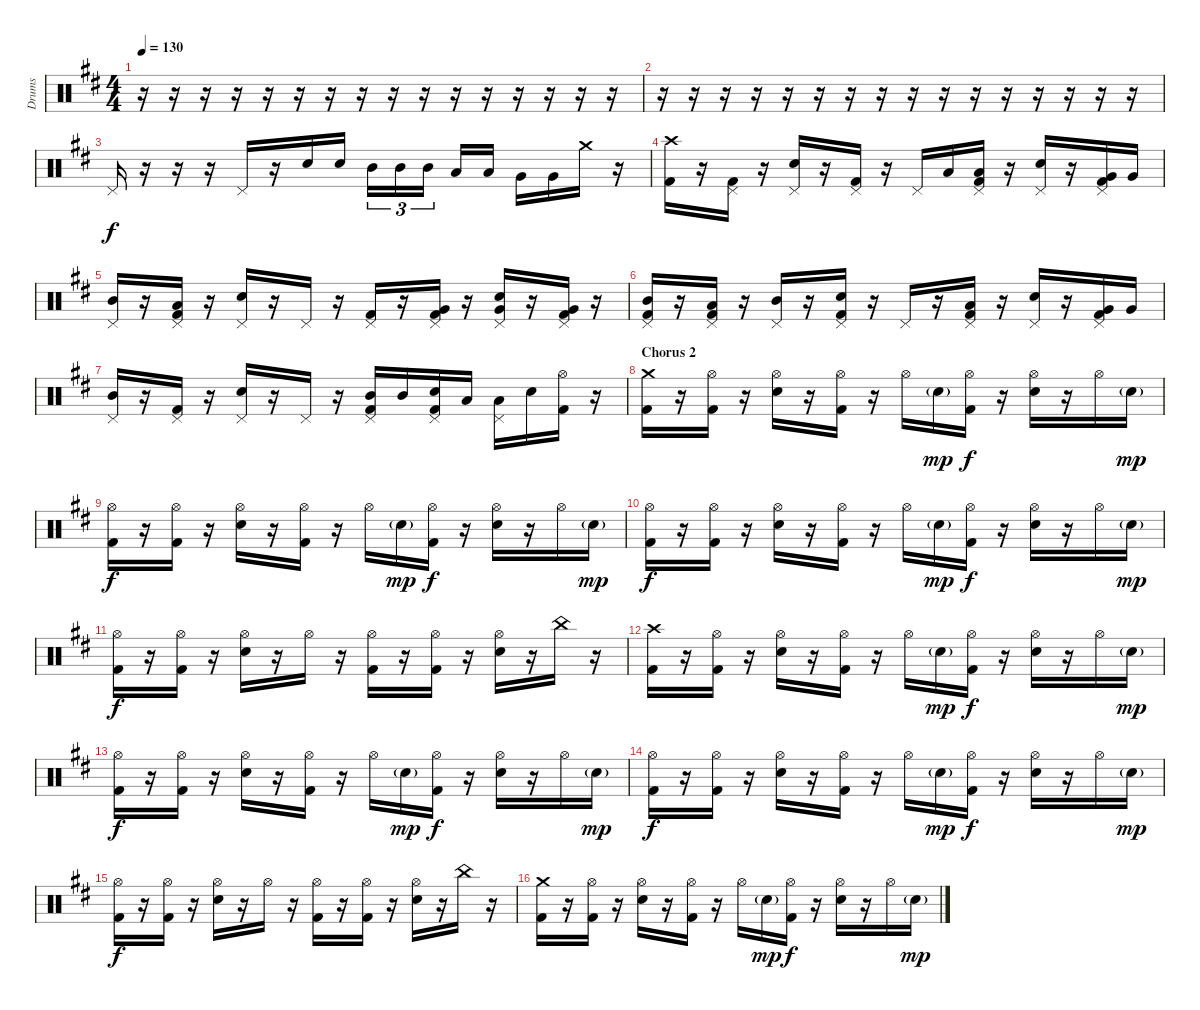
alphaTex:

\track ("Drums" "Drums") {instrument percussion}
\staff {score}
\articulation defaults
\ts (4 4)
\tempo 130
\clef neutral
\ks d
r.16{dy f} r.16 r.16 r.16 r.16 r.16 r.16 r.16 r.16 r.16 r.16 r.16 r.16 r.16 r.16 r.16 |
r.16 r.16 r.16 r.16 r.16 r.16 r.16 r.16 r.16 r.16 r.16 r.16 r.16 r.16 r.16 r.16 |
"Pedal Hi-Hat (hit)".16 r.16 r.16 r.16 "Pedal Hi-Hat (hit)".16 r.16 "Electric Snare (hit)".16 "Electric Snare (hit)".16 "Mid Tom (hit)".16{tu (3 2)} "Mid Tom (hit)".16{tu (3 2)} "Mid Tom (hit)".16{tu (3 2)} "Low Tom (hit)".16 "Low Tom (hit)".16 "Very Low Tom (hit)".16 "Very Low Tom (hit)".16 "Crash medium (hit)".16 r.16 |
("Crash high (hit)" "Kick (hit) 2").16 r.16 ("Pedal Hi-Hat (hit)" "Kick (hit) 2").16 r.16 ("Pedal Hi-Hat (hit)" "Electric Snare (hit)").16 r.16 ("Pedal Hi-Hat (hit)" "Kick (hit) 2").16 r.16 "Pedal Hi-Hat (hit)".16 "Low Tom (hit)".16 ("Pedal Hi-Hat (hit)" "Low Tom (hit)" "Kick (hit) 2").16 r.16 ("Pedal Hi-Hat (hit)" "Electric Snare (hit)").16 r.16 ("Pedal Hi-Hat (hit)" "Very Low Tom (hit)" "Kick (hit) 2").16 "Very Low Tom (hit)".16 |
("Mid Tom (hit)" "Pedal Hi-Hat (hit)").16 r.16 ("Pedal Hi-Hat (hit)" "Low Tom (hit)" "Kick (hit) 2").16 r.16 ("Pedal Hi-Hat (hit)" "Electric Snare (hit)").16 r.16 "Pedal Hi-Hat (hit)".16 r.16 ("Pedal Hi-Hat (hit)" "Kick (hit) 2").16 r.16 ("Pedal Hi-Hat (hit)" "Very Low Tom (hit)" "Kick (hit) 2").16 r.16 ("Pedal Hi-Hat (hit)" "Electric Snare (hit)" "Very Low Tom (hit)").16 r.16 ("Pedal Hi-Hat (hit)" "Very Low Tom (hit)" "Kick (hit) 2").16 r.16 |
("Mid Tom (hit)" "Pedal Hi-Hat (hit)" "Kick (hit) 2").16 r.16 ("Pedal Hi-Hat (hit)" "Low Tom (hit)" "Kick (hit) 2").16 r.16 ("Mid Tom (hit)" "Pedal Hi-Hat (hit)").16 r.16 ("Pedal Hi-Hat (hit)" "Electric Snare (hit)" "Kick (hit) 2").16 r.16 "Pedal Hi-Hat (hit)".16 r.16 ("Pedal Hi-Hat (hit)" "Low Tom (hit)" "Kick (hit) 2").16 r.16 ("Pedal Hi-Hat (hit)" "Electric Snare (hit)").16 r.16 ("Pedal Hi-Hat (hit)" "Very Low Tom (hit)" "Kick (hit) 2").16 "Very Low Tom (hit)".16 |
("Mid Tom (hit)" "Pedal Hi-Hat (hit)").16 r.16 ("Pedal Hi-Hat (hit)" "Kick (hit) 2").16 r.16 ("Pedal Hi-Hat (hit)" "Electric Snare (hit)").16 r.16 "Pedal Hi-Hat (hit)".16 r.16 ("Mid Tom (hit)" "Pedal Hi-Hat (hit)" "Kick (hit) 2").16 "Mid Tom (hit)".16 ("Pedal Hi-Hat (hit)" "Electric Snare (hit)" "Kick (hit) 2").16 "Low Tom (hit)".16 ("Pedal Hi-Hat (hit)" "Low Tom (hit)").16 "Electric Snare (hit)".16 ("Hi-Hat (open)" "Kick (hit) 2").16 r.16 |
\section ("" "Chorus 2")
("Crash medium (hit)" "Kick (hit) 2").16 r.16 ("Hi-Hat (open)" "Kick (hit) 2").16 r.16 ("Hi-Hat (open)" "Electric Snare (hit)").16 r.16 ("Hi-Hat (open)" "Kick (hit) 2").16 r.16 "Hi-Hat (open)".16 "Electric Snare (hit)"{g}.16{dy mp} ("Hi-Hat (open)" "Kick (hit) 2").16{dy f} r.16 ("Hi-Hat (open)" "Electric Snare (hit)").16 r.16 "Hi-Hat (open)".16 "Electric Snare (hit)"{g}.16{dy mp} |
("Hi-Hat (open)" "Kick (hit) 2").16{dy f} r.16 ("Hi-Hat (open)" "Kick (hit) 2").16 r.16 ("Hi-Hat (open)" "Electric Snare (hit)").16 r.16 ("Hi-Hat (open)" "Kick (hit) 2").16 r.16 "Hi-Hat (open)".16 "Electric Snare (hit)"{g}.16{dy mp} ("Hi-Hat (open)" "Kick (hit) 2").16{dy f} r.16 ("Hi-Hat (open)" "Electric Snare (hit)").16 r.16 "Hi-Hat (open)".16 "Electric Snare (hit)"{g}.16{dy mp} |
("Hi-Hat (open)" "Kick (hit) 2").16{dy f} r.16 ("Hi-Hat (open)" "Kick (hit) 2").16 r.16 ("Hi-Hat (open)" "Electric Snare (hit)").16 r.16 ("Hi-Hat (open)" "Kick (hit) 2").16 r.16 "Hi-Hat (open)".16 "Electric Snare (hit)"{g}.16{dy mp} ("Hi-Hat (open)" "Kick (hit) 2").16{dy f} r.16 ("Hi-Hat (open)" "Electric Snare (hit)").16 r.16 "Hi-Hat (open)".16 "Electric Snare (hit)"{g}.16{dy mp} |
("Hi-Hat (open)" "Kick (hit) 2").16{dy f} r.16 ("Hi-Hat (open)" "Kick (hit) 2").16 r.16 ("Hi-Hat (open)" "Electric Snare (hit)").16 r.16 "Hi-Hat (open)".16 r.16 ("Hi-Hat (open)" "Kick (hit) 2").16 r.16 ("Hi-Hat (open)" "Kick (hit) 2").16 r.16 ("Hi-Hat (open)" "Electric Snare (hit)").16 r.16 "China (hit)".16 r.16 |
("Crash high (hit)" "Kick (hit) 2").16 r.16 ("Hi-Hat (open)" "Kick (hit) 2").16 r.16 ("Hi-Hat (open)" "Electric Snare (hit)").16 r.16 ("Hi-Hat (open)" "Kick (hit) 2").16 r.16 "Hi-Hat (open)".16 "Electric Snare (hit)"{g}.16{dy mp} ("Hi-Hat (open)" "Kick (hit) 2").16{dy f} r.16 ("Hi-Hat (open)" "Electric Snare (hit)").16 r.16 "Hi-Hat (open)".16 "Electric Snare (hit)"{g}.16{dy mp} |
("Hi-Hat (open)" "Kick (hit) 2").16{dy f} r.16 ("Hi-Hat (open)" "Kick (hit) 2").16 r.16 ("Hi-Hat (open)" "Electric Snare (hit)").16 r.16 ("Hi-Hat (open)" "Kick (hit) 2").16 r.16 "Hi-Hat (open)".16 "Electric Snare (hit)"{g}.16{dy mp} ("Hi-Hat (open)" "Kick (hit) 2").16{dy f} r.16 ("Hi-Hat (open)" "Electric Snare (hit)").16 r.16 "Hi-Hat (open)".16 "Electric Snare (hit)"{g}.16{dy mp} |
("Hi-Hat (open)" "Kick (hit) 2").16{dy f} r.16 ("Hi-Hat (open)" "Kick (hit) 2").16 r.16 ("Hi-Hat (open)" "Electric Snare (hit)").16 r.16 ("Hi-Hat (open)" "Kick (hit) 2").16 r.16 "Hi-Hat (open)".16 "Electric Snare (hit)"{g}.16{dy mp} ("Hi-Hat (open)" "Kick (hit) 2").16{dy f} r.16 ("Hi-Hat (open)" "Electric Snare (hit)").16 r.16 "Hi-Hat (open)".16 "Electric Snare (hit)"{g}.16{dy mp} |
("Hi-Hat (open)" "Kick (hit) 2").16{dy f} r.16 ("Hi-Hat (open)" "Kick (hit) 2").16 r.16 ("Hi-Hat (open)" "Electric Snare (hit)").16 r.16 "Hi-Hat (open)".16 r.16 ("Hi-Hat (open)" "Kick (hit) 2").16 r.16 ("Hi-Hat (open)" "Kick (hit) 2").16 r.16 ("Hi-Hat (open)" "Electric Snare (hit)").16 r.16 "China (hit)".16 r.16 |
("Crash medium (hit)" "Kick (hit) 2").16 r.16 ("Hi-Hat (open)" "Kick (hit) 2").16 r.16 ("Hi-Hat (open)" "Electric Snare (hit)").16 r.16 ("Hi-Hat (open)" "Kick (hit) 2").16 r.16 "Hi-Hat (open)".16 "Electric Snare (hit)"{g}.16{dy mp} ("Hi-Hat (open)" "Kick (hit) 2").16{dy f} r.16 ("Hi-Hat (open)" "Electric Snare (hit)").16 r.16 "Hi-Hat (open)".16 "Electric Snare (hit)"{g}.16{dy mp}
